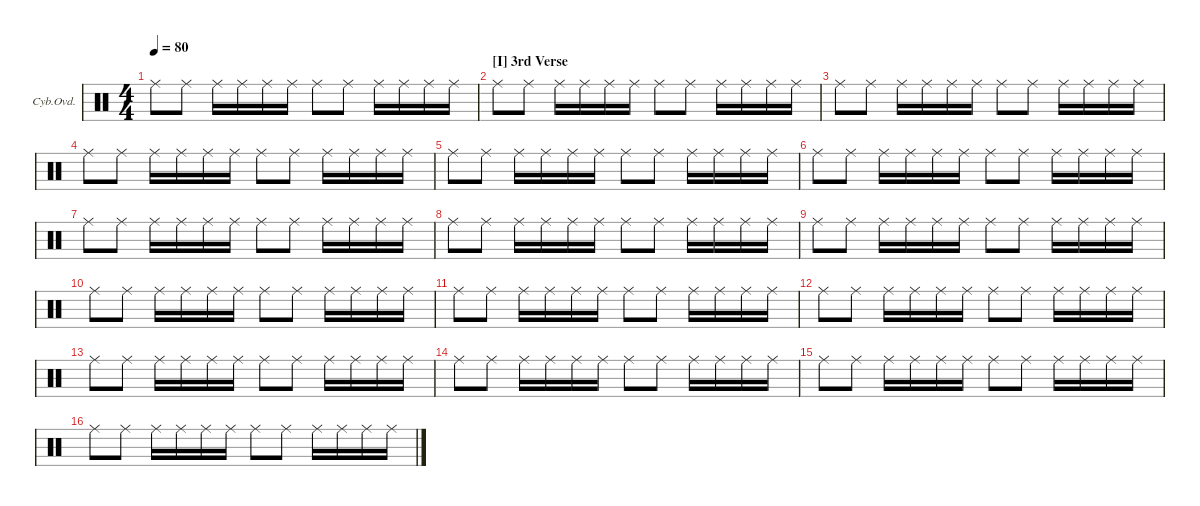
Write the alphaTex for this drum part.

\defaultSystemsLayout 4
\hideDynamics
\bracketExtendMode groupsimilarinstruments
\firstSystemTrackNameOrientation horizontal
\otherSystemsTrackNameOrientation horizontal
\track ("Cymbal Overdub" "Cyb.Ovd.") {multiBarRest instrument percussion}
\staff {score}
\articulation defaults
\ts (4 4)
\tempo 80
\clef neutral
\ks c "Ride (middle)".8{dy p} "Ride (middle)".8 "Ride (middle)".16 "Ride (middle)".16 "Ride (middle)".16 "Ride (middle)".16 "Ride (middle)".8 "Ride (middle)".8 "Ride (middle)".16 "Ride (middle)".16 "Ride (middle)".16 "Ride (middle)".16
|
\section ("I" "3rd Verse")
"Ride (middle)".8 "Ride (middle)".8 "Ride (middle)".16 "Ride (middle)".16 "Ride (middle)".16 "Ride (middle)".16 "Ride (middle)".8 "Ride (middle)".8 "Ride (middle)".16 "Ride (middle)".16 "Ride (middle)".16 "Ride (middle)".16 |
"Ride (middle)".8 "Ride (middle)".8 "Ride (middle)".16 "Ride (middle)".16 "Ride (middle)".16 "Ride (middle)".16 "Ride (middle)".8 "Ride (middle)".8 "Ride (middle)".16 "Ride (middle)".16 "Ride (middle)".16 "Ride (middle)".16 |
"Ride (middle)".8 "Ride (middle)".8 "Ride (middle)".16 "Ride (middle)".16 "Ride (middle)".16 "Ride (middle)".16 "Ride (middle)".8 "Ride (middle)".8 "Ride (middle)".16 "Ride (middle)".16 "Ride (middle)".16 "Ride (middle)".16 |
"Ride (middle)".8 "Ride (middle)".8 "Ride (middle)".16 "Ride (middle)".16 "Ride (middle)".16 "Ride (middle)".16 "Ride (middle)".8 "Ride (middle)".8 "Ride (middle)".16 "Ride (middle)".16 "Ride (middle)".16 "Ride (middle)".16 |
"Ride (middle)".8 "Ride (middle)".8 "Ride (middle)".16 "Ride (middle)".16 "Ride (middle)".16 "Ride (middle)".16 "Ride (middle)".8 "Ride (middle)".8 "Ride (middle)".16 "Ride (middle)".16 "Ride (middle)".16 "Ride (middle)".16 |
"Ride (middle)".8 "Ride (middle)".8 "Ride (middle)".16 "Ride (middle)".16 "Ride (middle)".16 "Ride (middle)".16 "Ride (middle)".8 "Ride (middle)".8 "Ride (middle)".16 "Ride (middle)".16 "Ride (middle)".16 "Ride (middle)".16 |
"Ride (middle)".8 "Ride (middle)".8 "Ride (middle)".16 "Ride (middle)".16 "Ride (middle)".16 "Ride (middle)".16 "Ride (middle)".8 "Ride (middle)".8 "Ride (middle)".16 "Ride (middle)".16 "Ride (middle)".16 "Ride (middle)".16 |
"Ride (middle)".8 "Ride (middle)".8 "Ride (middle)".16 "Ride (middle)".16 "Ride (middle)".16 "Ride (middle)".16 "Ride (middle)".8 "Ride (middle)".8 "Ride (middle)".16 "Ride (middle)".16 "Ride (middle)".16 "Ride (middle)".16 |
"Ride (middle)".8 "Ride (middle)".8 "Ride (middle)".16 "Ride (middle)".16 "Ride (middle)".16 "Ride (middle)".16 "Ride (middle)".8 "Ride (middle)".8 "Ride (middle)".16 "Ride (middle)".16 "Ride (middle)".16 "Ride (middle)".16 |
"Ride (middle)".8 "Ride (middle)".8 "Ride (middle)".16 "Ride (middle)".16 "Ride (middle)".16 "Ride (middle)".16 "Ride (middle)".8 "Ride (middle)".8 "Ride (middle)".16 "Ride (middle)".16 "Ride (middle)".16 "Ride (middle)".16 |
"Ride (middle)".8 "Ride (middle)".8 "Ride (middle)".16 "Ride (middle)".16 "Ride (middle)".16 "Ride (middle)".16 "Ride (middle)".8 "Ride (middle)".8 "Ride (middle)".16 "Ride (middle)".16 "Ride (middle)".16 "Ride (middle)".16 |
"Ride (middle)".8 "Ride (middle)".8 "Ride (middle)".16 "Ride (middle)".16 "Ride (middle)".16 "Ride (middle)".16 "Ride (middle)".8 "Ride (middle)".8 "Ride (middle)".16 "Ride (middle)".16 "Ride (middle)".16 "Ride (middle)".16 |
"Ride (middle)".8 "Ride (middle)".8 "Ride (middle)".16 "Ride (middle)".16 "Ride (middle)".16 "Ride (middle)".16 "Ride (middle)".8 "Ride (middle)".8 "Ride (middle)".16 "Ride (middle)".16 "Ride (middle)".16 "Ride (middle)".16 |
"Ride (middle)".8 "Ride (middle)".8 "Ride (middle)".16 "Ride (middle)".16 "Ride (middle)".16 "Ride (middle)".16 "Ride (middle)".8 "Ride (middle)".8 "Ride (middle)".16 "Ride (middle)".16 "Ride (middle)".16 "Ride (middle)".16 |
"Ride (middle)".8 "Ride (middle)".8 "Ride (middle)".16 "Ride (middle)".16 "Ride (middle)".16 "Ride (middle)".16 "Ride (middle)".8 "Ride (middle)".8 "Ride (middle)".16 "Ride (middle)".16 "Ride (middle)".16 "Ride (middle)".16
